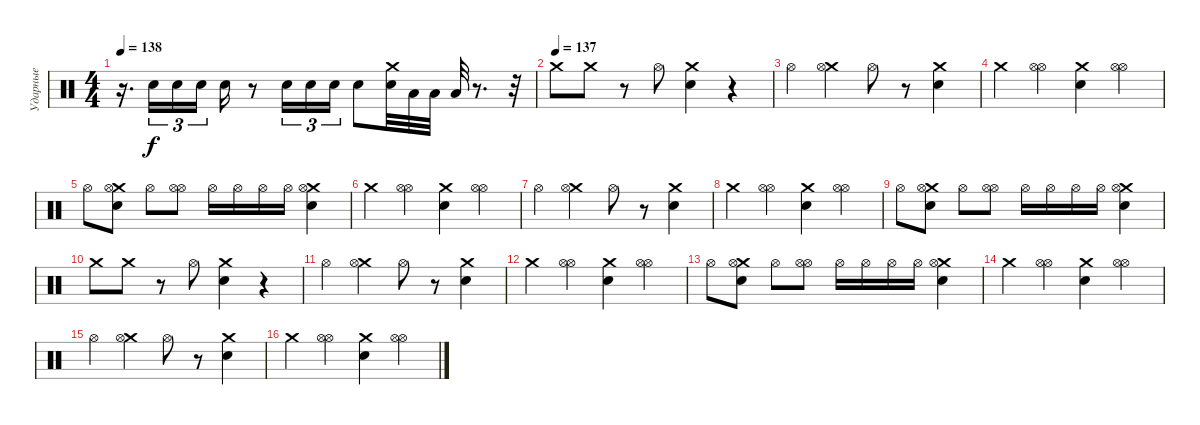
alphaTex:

\track ("Ударные" "Ударные") {instrument percussion}
\staff {score}
\articulation defaults
\ts (4 4)
\tempo 138
\clef neutral
\ks c
r.16{d dy f} "Electric Snare (hit)".16{tu (3 2)} "Electric Snare (hit)".16{tu (3 2)} "Electric Snare (hit)".16{tu (3 2) beam splitsecondary} "Electric Snare (hit)".16 r.8 "Electric Snare (hit)".16{tu (3 2)} "Electric Snare (hit)".16{tu (3 2)} "Electric Snare (hit)".16{tu (3 2)} "Electric Snare (hit)".8 ("Crash medium (hit)" "Electric Snare (hit)").32 "Low Tom (hit)".32 "Low Tom (hit)".32 "Low Tom (hit)".32 r.8{d} r.32 |
\tempo (137)
"Crash medium (hit)".8 "Crash medium (hit)".8 r.8 "Hi-Hat (open)".8 ("Crash medium (hit)" "Electric Snare (hit)").4 r.4 |
"Hi-Hat (open)".4 ("Crash medium (hit)" "Hi-Hat (open)").4 "Hi-Hat (open)".8 r.8 ("Crash medium (hit)" "Electric Snare (hit)").4 |
"Crash medium (hit)".4 ("Hi-Hat (open)" "Hi-Hat (open)").4 ("Crash medium (hit)" "Electric Snare (hit)").4 ("Hi-Hat (open)" "Hi-Hat (open)").4 |
"Hi-Hat (open)".8 ("Crash medium (hit)" "Hi-Hat (open)" "Electric Snare (hit)").8 "Hi-Hat (open)".8 ("Hi-Hat (open)" "Hi-Hat (open)").8 "Hi-Hat (open)".16 "Hi-Hat (open)".16 "Hi-Hat (open)".16 "Hi-Hat (open)".16 ("Crash medium (hit)" "Hi-Hat (open)" "Electric Snare (hit)").4 |
"Crash medium (hit)".4 ("Hi-Hat (open)" "Hi-Hat (open)").4 ("Crash medium (hit)" "Electric Snare (hit)").4 ("Hi-Hat (open)" "Hi-Hat (open)").4 |
"Hi-Hat (open)".4 ("Crash medium (hit)" "Hi-Hat (open)").4 "Hi-Hat (open)".8 r.8 ("Crash medium (hit)" "Electric Snare (hit)").4 |
"Crash medium (hit)".4 ("Hi-Hat (open)" "Hi-Hat (open)").4 ("Crash medium (hit)" "Electric Snare (hit)").4 ("Hi-Hat (open)" "Hi-Hat (open)").4 |
"Hi-Hat (open)".8 ("Crash medium (hit)" "Hi-Hat (open)" "Electric Snare (hit)").8 "Hi-Hat (open)".8 ("Hi-Hat (open)" "Hi-Hat (open)").8 "Hi-Hat (open)".16 "Hi-Hat (open)".16 "Hi-Hat (open)".16 "Hi-Hat (open)".16 ("Crash medium (hit)" "Hi-Hat (open)" "Electric Snare (hit)").4 |
"Crash medium (hit)".8 "Crash medium (hit)".8 r.8 "Hi-Hat (open)".8 ("Crash medium (hit)" "Electric Snare (hit)").4 r.4 |
"Hi-Hat (open)".4 ("Crash medium (hit)" "Hi-Hat (open)").4 "Hi-Hat (open)".8 r.8 ("Crash medium (hit)" "Electric Snare (hit)").4 |
"Crash medium (hit)".4 ("Hi-Hat (open)" "Hi-Hat (open)").4 ("Crash medium (hit)" "Electric Snare (hit)").4 ("Hi-Hat (open)" "Hi-Hat (open)").4 |
"Hi-Hat (open)".8 ("Crash medium (hit)" "Hi-Hat (open)" "Electric Snare (hit)").8 "Hi-Hat (open)".8 ("Hi-Hat (open)" "Hi-Hat (open)").8 "Hi-Hat (open)".16 "Hi-Hat (open)".16 "Hi-Hat (open)".16 "Hi-Hat (open)".16 ("Crash medium (hit)" "Hi-Hat (open)" "Electric Snare (hit)").4 |
"Crash medium (hit)".4 ("Hi-Hat (open)" "Hi-Hat (open)").4 ("Crash medium (hit)" "Electric Snare (hit)").4 ("Hi-Hat (open)" "Hi-Hat (open)").4 |
"Hi-Hat (open)".4 ("Crash medium (hit)" "Hi-Hat (open)").4 "Hi-Hat (open)".8 r.8 ("Crash medium (hit)" "Electric Snare (hit)").4 |
"Crash medium (hit)".4 ("Hi-Hat (open)" "Hi-Hat (open)").4 ("Crash medium (hit)" "Electric Snare (hit)").4 ("Hi-Hat (open)" "Hi-Hat (open)").4
